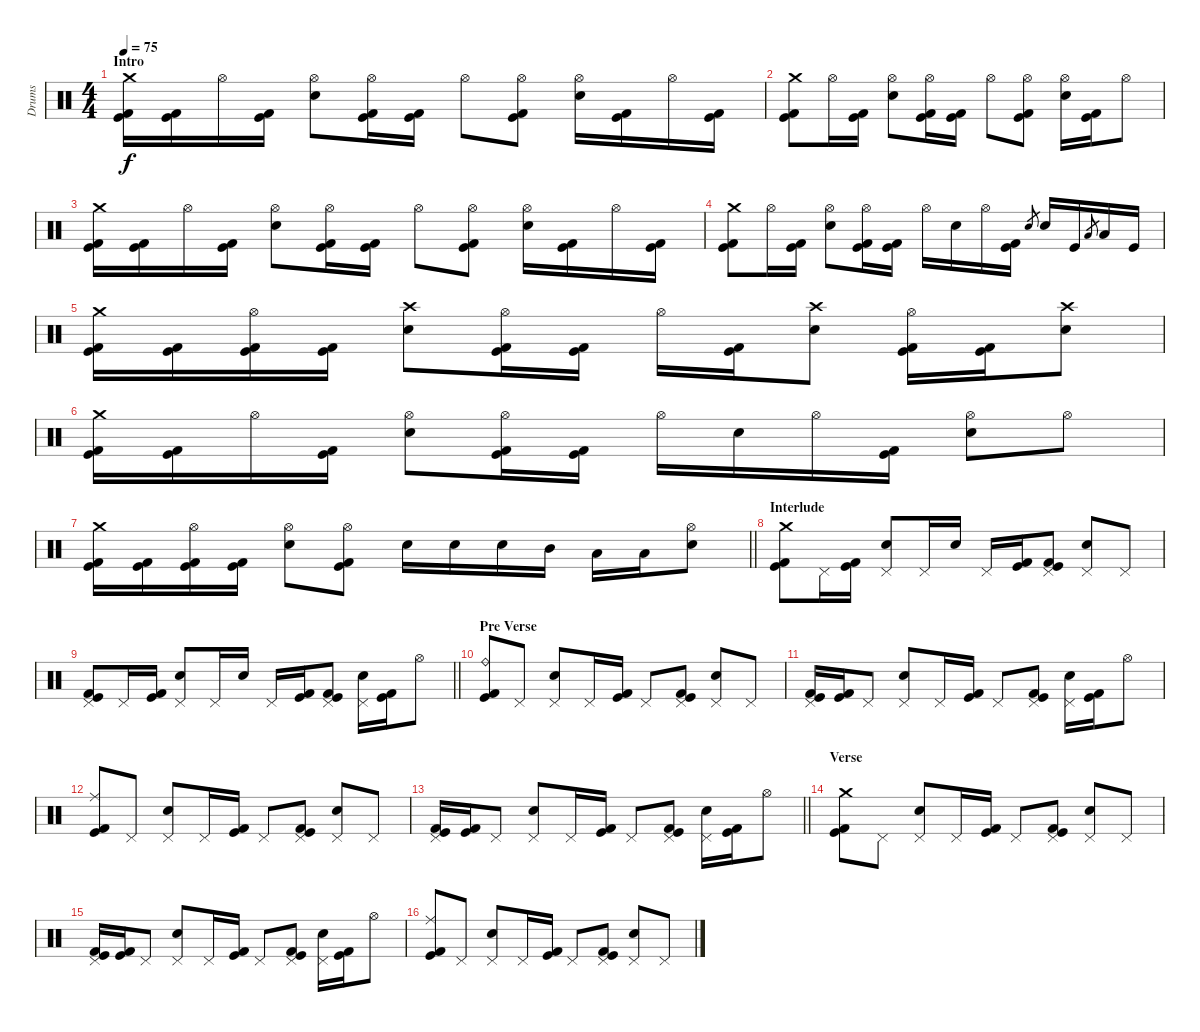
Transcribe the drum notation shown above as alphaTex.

\track ("Drums" "Drums") {instrument percussion}
\staff {score}
\articulation defaults
\ts (4 4)
\section ("" "Intro")
\tempo 75
\clef neutral
\ks c
("Crash medium (hit)" "Kick (hit) 2" "Kick (hit)").16{dy f} ("Kick (hit) 2" "Kick (hit)").16 "Hi-Hat (open)".16 ("Kick (hit) 2" "Kick (hit)").16 ("Hi-Hat (open)" "Electric Snare (hit)").8 ("Hi-Hat (open)" "Kick (hit) 2" "Kick (hit)").16 ("Kick (hit) 2" "Kick (hit)").16 "Hi-Hat (open)".8 ("Hi-Hat (open)" "Kick (hit) 2" "Kick (hit)").8 ("Hi-Hat (open)" "Electric Snare (hit)").16 ("Kick (hit) 2" "Kick (hit)").16 "Hi-Hat (open)".16 ("Kick (hit) 2" "Kick (hit)").16 |
("Crash medium (hit)" "Kick (hit) 2" "Kick (hit)").8 "Hi-Hat (open)".16 ("Kick (hit) 2" "Kick (hit)").16 ("Hi-Hat (open)" "Electric Snare (hit)").8 ("Hi-Hat (open)" "Kick (hit) 2" "Kick (hit)").16 ("Kick (hit) 2" "Kick (hit)").16 "Hi-Hat (open)".8 ("Hi-Hat (open)" "Kick (hit) 2" "Kick (hit)").8 ("Hi-Hat (open)" "Electric Snare (hit)").16 ("Kick (hit) 2" "Kick (hit)").16 "Hi-Hat (open)".8 |
("Crash medium (hit)" "Kick (hit) 2" "Kick (hit)").16 ("Kick (hit) 2" "Kick (hit)").16 "Hi-Hat (open)".16 ("Kick (hit) 2" "Kick (hit)").16 ("Hi-Hat (open)" "Electric Snare (hit)").8 ("Hi-Hat (open)" "Kick (hit) 2" "Kick (hit)").16 ("Kick (hit) 2" "Kick (hit)").16 "Hi-Hat (open)".8 ("Hi-Hat (open)" "Kick (hit) 2" "Kick (hit)").8 ("Hi-Hat (open)" "Electric Snare (hit)").16 ("Kick (hit) 2" "Kick (hit)").16 "Hi-Hat (open)".16 ("Kick (hit) 2" "Kick (hit)").16 |
("Crash medium (hit)" "Kick (hit) 2" "Kick (hit)").8 "Hi-Hat (open)".16 ("Kick (hit) 2" "Kick (hit)").16 ("Hi-Hat (open)" "Electric Snare (hit)").8 ("Hi-Hat (open)" "Kick (hit) 2" "Kick (hit)").16 ("Kick (hit) 2" "Kick (hit)").16 "Hi-Hat (open)".16 "Electric Snare (hit)".16 "Hi-Hat (open)".16 ("Kick (hit) 2" "Kick (hit)").16 "Electric Snare (hit)".8{gr} "Electric Snare (hit)".16 "Kick (hit)".16 "Low Tom (hit)".8{gr} "Low Tom (hit)".16 "Kick (hit)".16 |
("Crash medium (hit)" "Kick (hit) 2" "Kick (hit)").16 ("Kick (hit) 2" "Kick (hit)").16 ("Hi-Hat (open)" "Kick (hit) 2" "Kick (hit)").16 ("Kick (hit) 2" "Kick (hit)").16 ("Crash high (hit)" "Electric Snare (hit)").8 ("Hi-Hat (open)" "Kick (hit) 2" "Kick (hit)").16 ("Kick (hit) 2" "Kick (hit)").16 "Hi-Hat (open)".16 ("Kick (hit) 2" "Kick (hit)").16 ("Crash high (hit)" "Electric Snare (hit)").8 ("Hi-Hat (open)" "Kick (hit) 2" "Kick (hit)").16 ("Kick (hit) 2" "Kick (hit)").16 ("Crash high (hit)" "Electric Snare (hit)").8 |
("Crash medium (hit)" "Kick (hit) 2" "Kick (hit)").16 ("Kick (hit) 2" "Kick (hit)").16 "Hi-Hat (open)".16 ("Kick (hit) 2" "Kick (hit)").16 ("Hi-Hat (open)" "Electric Snare (hit)").8 ("Hi-Hat (open)" "Kick (hit) 2" "Kick (hit)").16 ("Kick (hit) 2" "Kick (hit)").16 "Hi-Hat (open)".16 "Electric Snare (hit)".16 "Hi-Hat (open)".16 ("Kick (hit) 2" "Kick (hit)").16 ("Hi-Hat (open)" "Electric Snare (hit)").8 "Hi-Hat (open)".8 |
\barLineRight lightlight
("Crash medium (hit)" "Kick (hit) 2" "Kick (hit)").16 ("Kick (hit) 2" "Kick (hit)").16 ("Hi-Hat (open)" "Kick (hit) 2" "Kick (hit)").16 ("Kick (hit) 2" "Kick (hit)").16 ("Hi-Hat (open)" "Electric Snare (hit)").8 ("Hi-Hat (open)" "Kick (hit) 2" "Kick (hit)").8 "Electric Snare (hit)".16 "Electric Snare (hit)".16 "Electric Snare (hit)".16 "Mid Tom (hit)".16 "Low Tom (hit)".16 "Low Tom (hit)".16 ("Hi-Hat (open)" "Electric Snare (hit)").8 |
\section ("" "Interlude")
("Crash medium (hit)" "Kick (hit) 2" "Kick (hit)").8 "Pedal Hi-Hat (hit)".16 ("Kick (hit) 2" "Kick (hit)").16 ("Pedal Hi-Hat (hit)" "Electric Snare (hit)").8 "Pedal Hi-Hat (hit)".16 "Electric Snare (hit)".16 "Pedal Hi-Hat (hit)".16 ("Kick (hit) 2" "Kick (hit)").16 ("Pedal Hi-Hat (hit)" "Kick (hit) 2" "Kick (hit)").8 ("Pedal Hi-Hat (hit)" "Electric Snare (hit)").8 "Pedal Hi-Hat (hit)".8 |
\barLineRight lightlight
("Pedal Hi-Hat (hit)" "Kick (hit) 2" "Kick (hit)").8 "Pedal Hi-Hat (hit)".16 ("Kick (hit) 2" "Kick (hit)").16 ("Pedal Hi-Hat (hit)" "Electric Snare (hit)").8 "Pedal Hi-Hat (hit)".16 "Electric Snare (hit)".16 "Pedal Hi-Hat (hit)".16 ("Kick (hit) 2" "Kick (hit)").16 ("Pedal Hi-Hat (hit)" "Kick (hit) 2" "Kick (hit)").8 ("Pedal Hi-Hat (hit)" "Electric Snare (hit)").16 ("Kick (hit) 2" "Kick (hit)").16 "Hi-Hat (open)".8 |
\section ("" "Pre Verse")
("Ride (bell)" "Kick (hit) 2" "Kick (hit)").8 "Pedal Hi-Hat (hit)".8 ("Pedal Hi-Hat (hit)" "Electric Snare (hit)").8 "Pedal Hi-Hat (hit)".16 ("Kick (hit) 2" "Kick (hit)").16 "Pedal Hi-Hat (hit)".8 ("Pedal Hi-Hat (hit)" "Kick (hit) 2" "Kick (hit)").8 ("Pedal Hi-Hat (hit)" "Electric Snare (hit)").8 "Pedal Hi-Hat (hit)".8 |
("Pedal Hi-Hat (hit)" "Kick (hit) 2" "Kick (hit)").16 ("Kick (hit) 2" "Kick (hit)").16 "Pedal Hi-Hat (hit)".8 ("Pedal Hi-Hat (hit)" "Electric Snare (hit)").8 "Pedal Hi-Hat (hit)".16 ("Kick (hit) 2" "Kick (hit)").16 "Pedal Hi-Hat (hit)".8 ("Pedal Hi-Hat (hit)" "Kick (hit) 2" "Kick (hit)").8 ("Pedal Hi-Hat (hit)" "Electric Snare (hit)").16 ("Kick (hit) 2" "Kick (hit)").16 "Hi-Hat (open)".8 |
("Ride (middle)" "Kick (hit) 2" "Kick (hit)").8 "Pedal Hi-Hat (hit)".8 ("Pedal Hi-Hat (hit)" "Electric Snare (hit)").8 "Pedal Hi-Hat (hit)".16 ("Kick (hit) 2" "Kick (hit)").16 "Pedal Hi-Hat (hit)".8 ("Pedal Hi-Hat (hit)" "Kick (hit) 2" "Kick (hit)").8 ("Pedal Hi-Hat (hit)" "Electric Snare (hit)").8 "Pedal Hi-Hat (hit)".8 |
\barLineRight lightlight
("Pedal Hi-Hat (hit)" "Kick (hit) 2" "Kick (hit)").16 ("Kick (hit) 2" "Kick (hit)").16 "Pedal Hi-Hat (hit)".8 ("Pedal Hi-Hat (hit)" "Electric Snare (hit)").8 "Pedal Hi-Hat (hit)".16 ("Kick (hit) 2" "Kick (hit)").16 "Pedal Hi-Hat (hit)".8 ("Pedal Hi-Hat (hit)" "Kick (hit) 2" "Kick (hit)").8 ("Pedal Hi-Hat (hit)" "Electric Snare (hit)").16 ("Kick (hit) 2" "Kick (hit)").16 "Hi-Hat (open)".8 |
\section ("" "Verse")
("Crash medium (hit)" "Kick (hit) 2" "Kick (hit)").8 "Pedal Hi-Hat (hit)".8 ("Pedal Hi-Hat (hit)" "Electric Snare (hit)").8 "Pedal Hi-Hat (hit)".16 ("Kick (hit) 2" "Kick (hit)").16 "Pedal Hi-Hat (hit)".8 ("Pedal Hi-Hat (hit)" "Kick (hit) 2" "Kick (hit)").8 ("Pedal Hi-Hat (hit)" "Electric Snare (hit)").8 "Pedal Hi-Hat (hit)".8 |
("Pedal Hi-Hat (hit)" "Kick (hit) 2" "Kick (hit)").16 ("Kick (hit) 2" "Kick (hit)").16 "Pedal Hi-Hat (hit)".8 ("Pedal Hi-Hat (hit)" "Electric Snare (hit)").8 "Pedal Hi-Hat (hit)".16 ("Kick (hit) 2" "Kick (hit)").16 "Pedal Hi-Hat (hit)".8 ("Pedal Hi-Hat (hit)" "Kick (hit) 2" "Kick (hit)").8 ("Pedal Hi-Hat (hit)" "Electric Snare (hit)").16 ("Kick (hit) 2" "Kick (hit)").16 "Hi-Hat (open)".8 |
("Ride (middle)" "Kick (hit) 2" "Kick (hit)").8 "Pedal Hi-Hat (hit)".8 ("Pedal Hi-Hat (hit)" "Electric Snare (hit)").8 "Pedal Hi-Hat (hit)".16 ("Kick (hit) 2" "Kick (hit)").16 "Pedal Hi-Hat (hit)".8 ("Pedal Hi-Hat (hit)" "Kick (hit) 2" "Kick (hit)").8 ("Pedal Hi-Hat (hit)" "Electric Snare (hit)").8 "Pedal Hi-Hat (hit)".8
